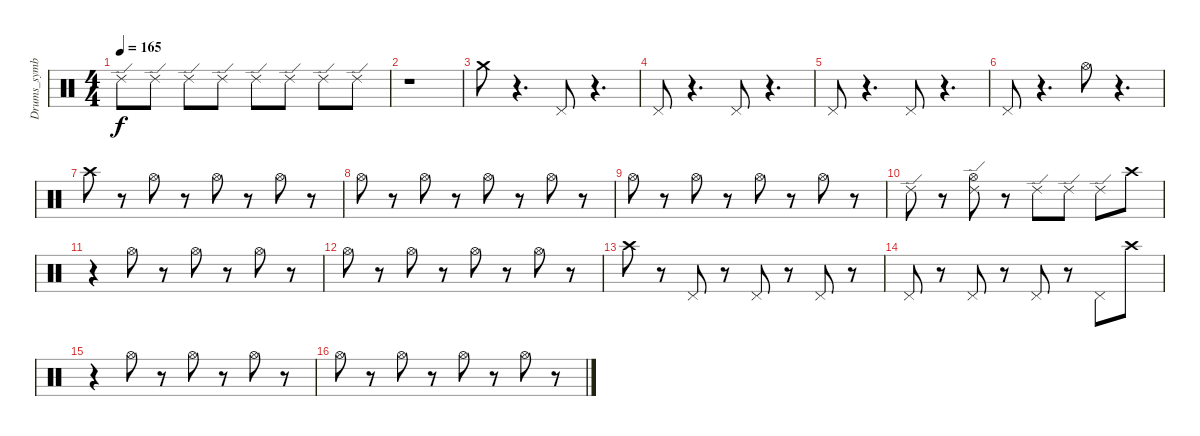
\track ("Drums_symbal" "Drums_symb") {instrument percussion}
\staff {score}
\articulation defaults
\ts (4 4)
\tempo 165
\clef neutral
\ks c "Ride (edge) 2".8{dy f} "Ride (edge) 2".8 "Ride (edge) 2".8 "Ride (edge) 2".8 "Ride (edge) 2".8 "Ride (edge) 2".8 "Ride (edge) 2".8 "Ride (edge) 2".8
|
r.1 |
"Crash medium (hit)".8 r.4{d} "Pedal Hi-Hat (hit)".8 r.4{d} |
"Pedal Hi-Hat (hit)".8 r.4{d} "Pedal Hi-Hat (hit)".8 r.4{d} |
"Pedal Hi-Hat (hit)".8 r.4{d} "Pedal Hi-Hat (hit)".8 r.4{d} |
"Pedal Hi-Hat (hit)".8 r.4{d} "Hi-Hat (open)".8 r.4{d} |
"Crash high (hit)".8 r.8 "Hi-Hat (open)".8 r.8 "Hi-Hat (open)".8 r.8 "Hi-Hat (open)".8 r.8 |
"Hi-Hat (open)".8 r.8 "Hi-Hat (open)".8 r.8 "Hi-Hat (open)".8 r.8 "Hi-Hat (open)".8 r.8 |
"Hi-Hat (open)".8 r.8 "Hi-Hat (open)".8 r.8 "Hi-Hat (open)".8 r.8 "Hi-Hat (open)".8 r.8 |
"Ride (edge) 2".8 r.8 ("Hi-Hat (open)" "Ride (edge) 2").8 r.8 "Ride (edge) 2".8 "Ride (edge) 2".8 "Ride (edge) 2".8 "Crash high (hit)".8 |
r.4 "Hi-Hat (open)".8 r.8 "Hi-Hat (open)".8 r.8 "Hi-Hat (open)".8 r.8 |
"Hi-Hat (open)".8 r.8 "Hi-Hat (open)".8 r.8 "Hi-Hat (open)".8 r.8 "Hi-Hat (open)".8 r.8 |
"Crash high (hit)".8 r.8 "Pedal Hi-Hat (hit)".8 r.8 "Pedal Hi-Hat (hit)".8 r.8 "Pedal Hi-Hat (hit)".8 r.8 |
"Pedal Hi-Hat (hit)".8 r.8 "Pedal Hi-Hat (hit)".8 r.8 "Pedal Hi-Hat (hit)".8 r.8 "Pedal Hi-Hat (hit)".8 "Crash high (hit)".8 |
r.4 "Hi-Hat (open)".8 r.8 "Hi-Hat (open)".8 r.8 "Hi-Hat (open)".8 r.8 |
"Hi-Hat (open)".8 r.8 "Hi-Hat (open)".8 r.8 "Hi-Hat (open)".8 r.8 "Hi-Hat (open)".8 r.8
